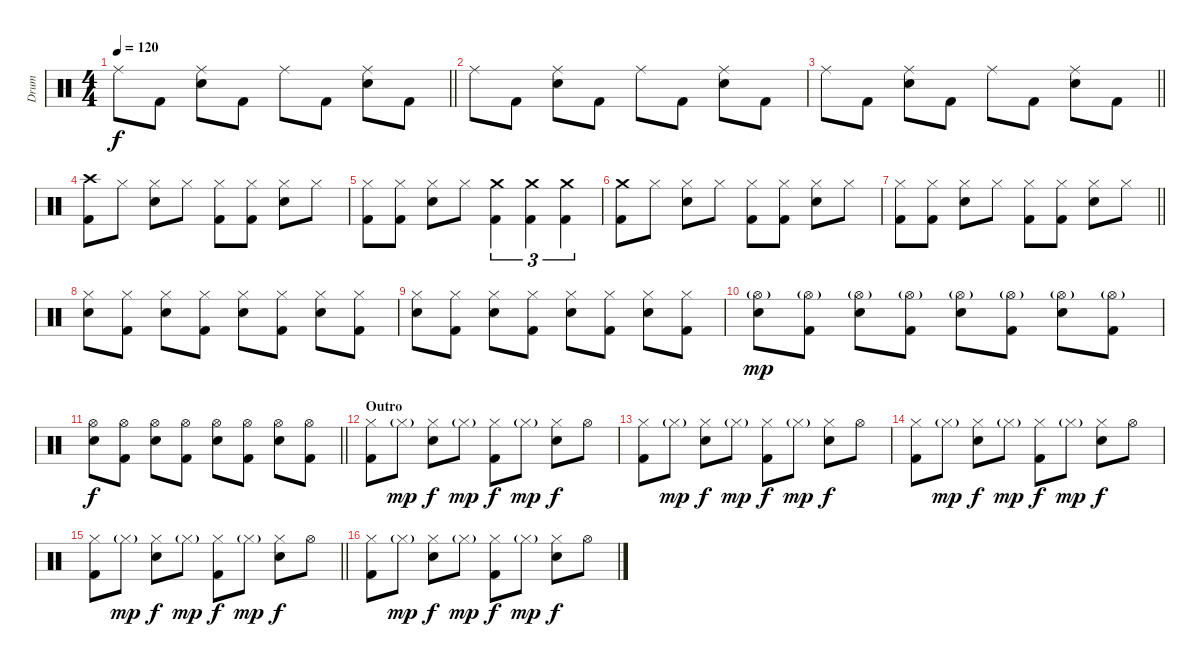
\track ("Drum" "Drum") {instrument percussion}
\staff {score}
\articulation defaults
\ts (4 4)
\tempo 120
\clef neutral
\barLineRight lightlight
\ks c "Ride (middle)".8{dy f} "Kick (hit) 2".8
("Ride (middle)" "Electric Snare (hit)").8 "Kick (hit) 2".8 "Ride (middle)".8 "Kick (hit) 2".8 ("Ride (middle)" "Electric Snare (hit)").8 "Kick (hit) 2".8 |
"Ride (middle)".8 "Kick (hit) 2".8 ("Ride (middle)" "Electric Snare (hit)").8 "Kick (hit) 2".8 "Ride (middle)".8 "Kick (hit) 2".8 ("Ride (middle)" "Electric Snare (hit)").8 "Kick (hit) 2".8 |
\barLineRight lightlight "Ride (middle)".8 "Kick (hit) 2".8
("Ride (middle)" "Electric Snare (hit)").8 "Kick (hit) 2".8 "Ride (middle)".8 "Kick (hit) 2".8 ("Ride (middle)" "Electric Snare (hit)").8 "Kick (hit) 2".8 |
("Crash high (hit)" "Kick (hit) 2").8 "Hi-Hat (closed)".8 ("Hi-Hat (closed)" "Electric Snare (hit)").8 "Hi-Hat (closed)".8 ("Hi-Hat (closed)" "Kick (hit) 2").8 ("Hi-Hat (closed)" "Kick (hit) 2").8 ("Hi-Hat (closed)" "Electric Snare (hit)").8 "Hi-Hat (closed)".8 |
("Hi-Hat (closed)" "Kick (hit) 2").8 ("Hi-Hat (closed)" "Kick (hit) 2").8 ("Hi-Hat (closed)" "Electric Snare (hit)").8 "Hi-Hat (closed)".8 ("Crash medium (hit)" "Kick (hit) 2").4{tu (3 2)} ("Crash medium (hit)" "Kick (hit) 2").4{tu (3 2)} ("Crash medium (hit)" "Kick (hit) 2").4{tu (3 2)} |
("Crash medium (hit)" "Kick (hit) 2").8 "Hi-Hat (closed)".8 ("Hi-Hat (closed)" "Electric Snare (hit)").8 "Hi-Hat (closed)".8 ("Hi-Hat (closed)" "Kick (hit) 2").8 ("Hi-Hat (closed)" "Kick (hit) 2").8 ("Hi-Hat (closed)" "Electric Snare (hit)").8 "Hi-Hat (closed)".8 |
\barLineRight lightlight
("Hi-Hat (closed)" "Kick (hit) 2").8 ("Hi-Hat (closed)" "Kick (hit) 2").8 ("Hi-Hat (closed)" "Electric Snare (hit)").8 "Hi-Hat (closed)".8 ("Hi-Hat (closed)" "Kick (hit) 2").8 ("Hi-Hat (closed)" "Kick (hit) 2").8 ("Hi-Hat (closed)" "Electric Snare (hit)").8 "Hi-Hat (closed)".8 |
("Hi-Hat (closed)" "Electric Snare (hit)").8 ("Hi-Hat (closed)" "Kick (hit) 2").8 ("Hi-Hat (closed)" "Electric Snare (hit)").8 ("Hi-Hat (closed)" "Kick (hit) 2").8 ("Hi-Hat (closed)" "Electric Snare (hit)").8 ("Hi-Hat (closed)" "Kick (hit) 2").8 ("Hi-Hat (closed)" "Electric Snare (hit)").8 ("Hi-Hat (closed)" "Kick (hit) 2").8 |
("Hi-Hat (closed)" "Electric Snare (hit)").8 ("Hi-Hat (closed)" "Kick (hit) 2").8 ("Hi-Hat (closed)" "Electric Snare (hit)").8 ("Hi-Hat (closed)" "Kick (hit) 2").8 ("Hi-Hat (closed)" "Electric Snare (hit)").8 ("Hi-Hat (closed)" "Kick (hit) 2").8 ("Hi-Hat (closed)" "Electric Snare (hit)").8 ("Hi-Hat (closed)" "Kick (hit) 2").8 |
("Hi-Hat (open)"{g} "Electric Snare (hit)").8{dy mp} ("Hi-Hat (open)"{g} "Kick (hit) 2").8 ("Hi-Hat (open)"{g} "Electric Snare (hit)").8 ("Hi-Hat (open)"{g} "Kick (hit) 2").8 ("Hi-Hat (open)"{g} "Electric Snare (hit)").8 ("Hi-Hat (open)"{g} "Kick (hit) 2").8 ("Hi-Hat (open)"{g} "Electric Snare (hit)").8 ("Hi-Hat (open)"{g} "Kick (hit) 2").8 |
\barLineRight lightlight
("Hi-Hat (open)" "Electric Snare (hit)").8{dy f} ("Hi-Hat (open)" "Kick (hit) 2").8 ("Hi-Hat (open)" "Electric Snare (hit)").8 ("Hi-Hat (open)" "Kick (hit) 2").8 ("Hi-Hat (open)" "Electric Snare (hit)").8 ("Hi-Hat (open)" "Kick (hit) 2").8 ("Hi-Hat (open)" "Electric Snare (hit)").8 ("Hi-Hat (open)" "Kick (hit) 2").8 |
\section ("" "Outro")
("Hi-Hat (closed)" "Kick (hit) 2").8 "Hi-Hat (closed)"{g}.8{dy mp} ("Hi-Hat (closed)" "Electric Snare (hit)").8{dy f} "Hi-Hat (closed)"{g}.8{dy mp} ("Hi-Hat (closed)" "Kick (hit) 2").8{dy f} "Hi-Hat (closed)"{g}.8{dy mp} ("Hi-Hat (closed)" "Electric Snare (hit)").8{dy f} "Hi-Hat (open)".8 |
("Hi-Hat (closed)" "Kick (hit) 2").8 "Hi-Hat (closed)"{g}.8{dy mp} ("Hi-Hat (closed)" "Electric Snare (hit)").8{dy f} "Hi-Hat (closed)"{g}.8{dy mp} ("Hi-Hat (closed)" "Kick (hit) 2").8{dy f} "Hi-Hat (closed)"{g}.8{dy mp} ("Hi-Hat (closed)" "Electric Snare (hit)").8{dy f} "Hi-Hat (open)".8 |
("Hi-Hat (closed)" "Kick (hit) 2").8 "Hi-Hat (closed)"{g}.8{dy mp} ("Hi-Hat (closed)" "Electric Snare (hit)").8{dy f} "Hi-Hat (closed)"{g}.8{dy mp} ("Hi-Hat (closed)" "Kick (hit) 2").8{dy f} "Hi-Hat (closed)"{g}.8{dy mp} ("Hi-Hat (closed)" "Electric Snare (hit)").8{dy f} "Hi-Hat (open)".8 |
\barLineRight lightlight
("Hi-Hat (closed)" "Kick (hit) 2").8 "Hi-Hat (closed)"{g}.8{dy mp} ("Hi-Hat (closed)" "Electric Snare (hit)").8{dy f} "Hi-Hat (closed)"{g}.8{dy mp} ("Hi-Hat (closed)" "Kick (hit) 2").8{dy f} "Hi-Hat (closed)"{g}.8{dy mp} ("Hi-Hat (closed)" "Electric Snare (hit)").8{dy f} "Hi-Hat (open)".8 |
("Hi-Hat (closed)" "Kick (hit) 2").8 "Hi-Hat (closed)"{g}.8{dy mp} ("Hi-Hat (closed)" "Electric Snare (hit)").8{dy f} "Hi-Hat (closed)"{g}.8{dy mp} ("Hi-Hat (closed)" "Kick (hit) 2").8{dy f} "Hi-Hat (closed)"{g}.8{dy mp} ("Hi-Hat (closed)" "Electric Snare (hit)").8{dy f} "Hi-Hat (open)".8
